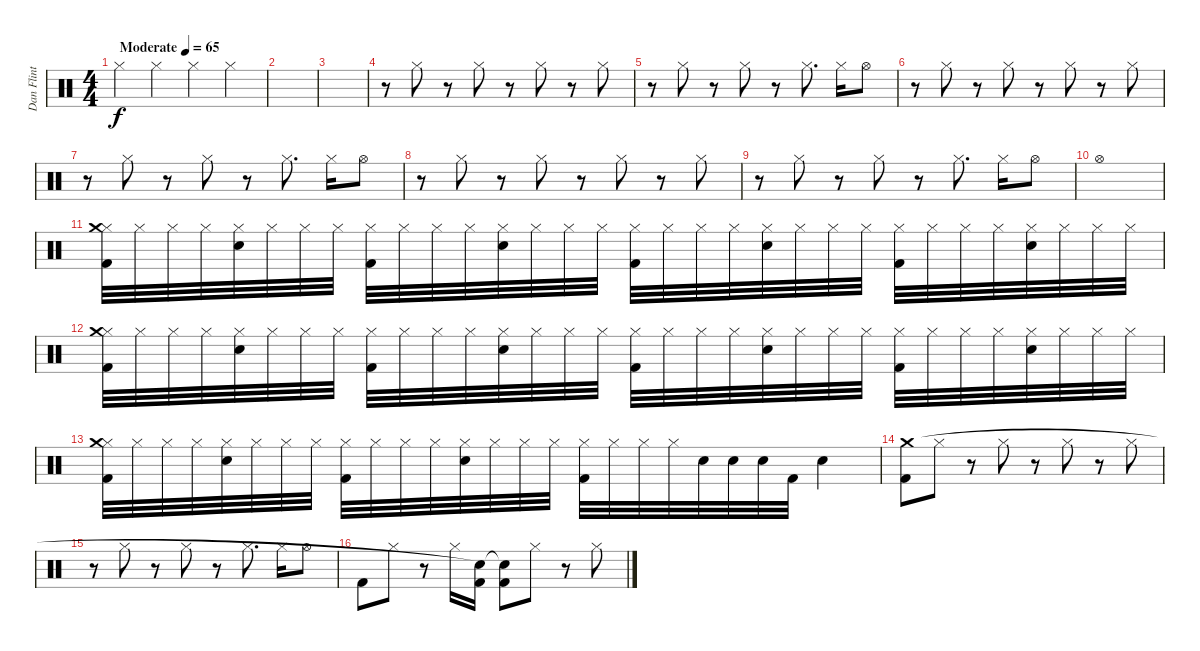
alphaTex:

\track ("Dan Flint" "Dan Flint") {instrument percussion}
\staff {score}
\articulation defaults
\ts (4 4)
\tempo (65 "Moderate")
\clef neutral
\ks c "Hi-Hat (closed)".4{dy f} "Hi-Hat (closed)".4 "Hi-Hat (closed)".4 "Hi-Hat (closed)".4
|
|
|
r.8 "Hi-Hat (closed)".8 r.8 "Hi-Hat (closed)".8 r.8 "Hi-Hat (closed)".8 r.8 "Hi-Hat (closed)".8 |
r.8 "Hi-Hat (closed)".8 r.8 "Hi-Hat (closed)".8 r.8 "Hi-Hat (closed)".8{d} "Hi-Hat (closed)".16 "Hi-Hat (open)".8 |
r.8 "Hi-Hat (closed)".8 r.8 "Hi-Hat (closed)".8 r.8 "Hi-Hat (closed)".8 r.8 "Hi-Hat (closed)".8 |
r.8 "Hi-Hat (closed)".8 r.8 "Hi-Hat (closed)".8 r.8 "Hi-Hat (closed)".8{d} "Hi-Hat (closed)".16 "Hi-Hat (open)".8 |
r.8 "Hi-Hat (closed)".8 r.8 "Hi-Hat (closed)".8 r.8 "Hi-Hat (closed)".8 r.8 "Hi-Hat (closed)".8 |
r.8 "Hi-Hat (closed)".8 r.8 "Hi-Hat (closed)".8 r.8 "Hi-Hat (closed)".8{d} "Hi-Hat (closed)".16 "Hi-Hat (open)".8 |
"Hi-Hat (open)".1 |
("Hi-Hat (closed)" "Kick (hit) 2" "Crash medium (hit)").32 "Hi-Hat (closed)".32 "Hi-Hat (closed)".32 "Hi-Hat (closed)".32 ("Hi-Hat (closed)" "Snare (hit) 2").32 "Hi-Hat (closed)".32 "Hi-Hat (closed)".32 "Hi-Hat (closed)".32 ("Hi-Hat (closed)" "Kick (hit) 2").32 "Hi-Hat (closed)".32 "Hi-Hat (closed)".32 "Hi-Hat (closed)".32 ("Hi-Hat (closed)" "Snare (hit) 2").32 "Hi-Hat (closed)".32 "Hi-Hat (closed)".32 "Hi-Hat (closed)".32 ("Hi-Hat (closed)" "Kick (hit) 2").32 "Hi-Hat (closed)".32 "Hi-Hat (closed)".32 "Hi-Hat (closed)".32 ("Hi-Hat (closed)" "Snare (hit) 2").32 "Hi-Hat (closed)".32 "Hi-Hat (closed)".32 "Hi-Hat (closed)".32 ("Hi-Hat (closed)" "Kick (hit) 2").32 "Hi-Hat (closed)".32 "Hi-Hat (closed)".32 "Hi-Hat (closed)".32 ("Hi-Hat (closed)" "Snare (hit) 2").32 "Hi-Hat (closed)".32 "Hi-Hat (closed)".32 "Hi-Hat (closed)".32 |
("Hi-Hat (closed)" "Kick (hit) 2" "Crash medium (hit)").32 "Hi-Hat (closed)".32 "Hi-Hat (closed)".32 "Hi-Hat (closed)".32 ("Hi-Hat (closed)" "Snare (hit) 2").32 "Hi-Hat (closed)".32 "Hi-Hat (closed)".32 "Hi-Hat (closed)".32 ("Hi-Hat (closed)" "Kick (hit) 2").32 "Hi-Hat (closed)".32 "Hi-Hat (closed)".32 "Hi-Hat (closed)".32 ("Hi-Hat (closed)" "Snare (hit) 2").32 "Hi-Hat (closed)".32 "Hi-Hat (closed)".32 "Hi-Hat (closed)".32 ("Hi-Hat (closed)" "Kick (hit) 2").32 "Hi-Hat (closed)".32 "Hi-Hat (closed)".32 "Hi-Hat (closed)".32 ("Hi-Hat (closed)" "Snare (hit) 2").32 "Hi-Hat (closed)".32 "Hi-Hat (closed)".32 "Hi-Hat (closed)".32 ("Hi-Hat (closed)" "Kick (hit) 2").32 "Hi-Hat (closed)".32 "Hi-Hat (closed)".32 "Hi-Hat (closed)".32 ("Hi-Hat (closed)" "Snare (hit) 2").32 "Hi-Hat (closed)".32 "Hi-Hat (closed)".32 "Hi-Hat (closed)".32 |
("Hi-Hat (closed)" "Kick (hit) 2" "Crash medium (hit)").32 "Hi-Hat (closed)".32 "Hi-Hat (closed)".32 "Hi-Hat (closed)".32 ("Hi-Hat (closed)" "Snare (hit) 2").32 "Hi-Hat (closed)".32 "Hi-Hat (closed)".32 "Hi-Hat (closed)".32 ("Hi-Hat (closed)" "Kick (hit) 2").32 "Hi-Hat (closed)".32 "Hi-Hat (closed)".32 "Hi-Hat (closed)".32 ("Hi-Hat (closed)" "Snare (hit) 2").32 "Hi-Hat (closed)".32 "Hi-Hat (closed)".32 "Hi-Hat (closed)".32 ("Hi-Hat (closed)" "Kick (hit) 2").32 "Hi-Hat (closed)".32 "Hi-Hat (closed)".32 "Hi-Hat (closed)".32 "Snare (hit) 2".32 "Snare (hit) 2".32 "Snare (hit) 2".32 "Kick (hit) 2".32 "Snare (hit) 2".4 |
("Kick (hit) 2" "Crash medium (hit)").8 "Hi-Hat (closed)".8 r.8 "Hi-Hat (closed)".8 r.8 "Hi-Hat (closed)".8 r.8 "Hi-Hat (closed)".8 |
r.8 "Hi-Hat (closed)".8 r.8 "Hi-Hat (closed)".8 r.8 "Hi-Hat (closed)".8{d} "Hi-Hat (closed)".16 "Hi-Hat (open)".8 |
"Kick (hit) 2".8 "Hi-Hat (closed)".8 r.8 "Hi-Hat (closed)".16 ("Kick (hit) 2" "Snare (hit)"{t}).16 ("Kick (hit) 2" "Snare (hit)"{t}).8 "Hi-Hat (closed)".8 r.8 "Hi-Hat (closed)".8
